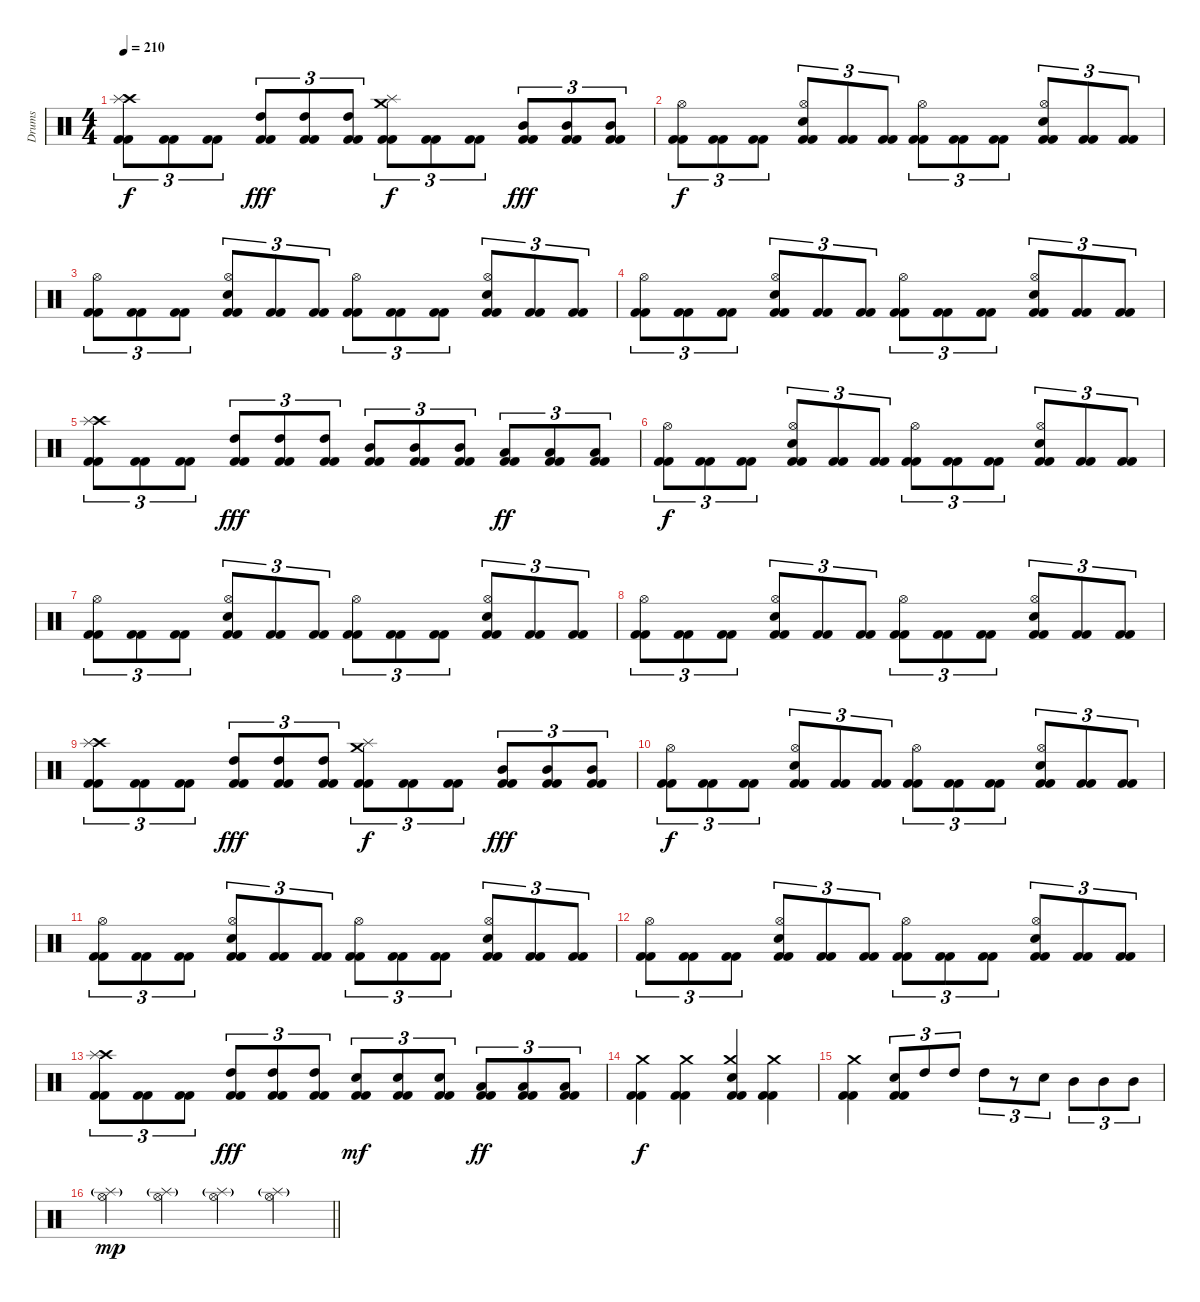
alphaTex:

\track ("Drums" "Drums") {instrument percussion}
\staff {score}
\articulation defaults
\ts (4 4)
\tempo 210
\clef neutral
\ks c
("Crash high (hit)" "Splash (hit)" "Kick (hit) 2" "Kick (hit) 2").8{tu (3 2) dy f} ("Kick (hit) 2" "Kick (hit) 2").8{tu (3 2)} ("Kick (hit) 2" "Kick (hit) 2").8{tu (3 2)} ("High Tom (hit)" "Kick (hit) 2" "Kick (hit) 2").8{tu (3 2) dy fff} ("High Tom (hit)" "Kick (hit) 2" "Kick (hit) 2").8{tu (3 2)} ("High Tom (hit)" "Kick (hit) 2" "Kick (hit) 2").8{tu (3 2)} ("Crash medium (hit)" "Splash (hit)" "Kick (hit) 2" "Kick (hit) 2").8{tu (3 2) dy f} ("Kick (hit) 2" "Kick (hit) 2").8{tu (3 2)} ("Kick (hit) 2" "Kick (hit) 2").8{tu (3 2)} ("Mid Tom (hit)" "Kick (hit) 2" "Kick (hit) 2").8{tu (3 2) dy fff} ("Mid Tom (hit)" "Kick (hit) 2" "Kick (hit) 2").8{tu (3 2)} ("Mid Tom (hit)" "Kick (hit) 2" "Kick (hit) 2").8{tu (3 2)} |
("Hi-Hat (open)" "Kick (hit) 2" "Kick (hit) 2").8{tu (3 2) dy f} ("Kick (hit) 2" "Kick (hit) 2").8{tu (3 2)} ("Kick (hit) 2" "Kick (hit) 2").8{tu (3 2)} ("Hi-Hat (open)" "Snare (hit) 2" "Kick (hit) 2" "Kick (hit) 2").8{tu (3 2)} ("Kick (hit) 2" "Kick (hit) 2").8{tu (3 2)} ("Kick (hit) 2" "Kick (hit) 2").8{tu (3 2)} ("Hi-Hat (open)" "Kick (hit) 2" "Kick (hit) 2").8{tu (3 2)} ("Kick (hit) 2" "Kick (hit) 2").8{tu (3 2)} ("Kick (hit) 2" "Kick (hit) 2").8{tu (3 2)} ("Hi-Hat (open)" "Snare (hit) 2" "Kick (hit) 2" "Kick (hit) 2").8{tu (3 2)} ("Kick (hit) 2" "Kick (hit) 2").8{tu (3 2)} ("Kick (hit) 2" "Kick (hit) 2").8{tu (3 2)} |
("Hi-Hat (open)" "Kick (hit) 2" "Kick (hit) 2").8{tu (3 2)} ("Kick (hit) 2" "Kick (hit) 2").8{tu (3 2)} ("Kick (hit) 2" "Kick (hit) 2").8{tu (3 2)} ("Hi-Hat (open)" "Snare (hit) 2" "Kick (hit) 2" "Kick (hit) 2").8{tu (3 2)} ("Kick (hit) 2" "Kick (hit) 2").8{tu (3 2)} ("Kick (hit) 2" "Kick (hit) 2").8{tu (3 2)} ("Hi-Hat (open)" "Kick (hit) 2" "Kick (hit) 2").8{tu (3 2)} ("Kick (hit) 2" "Kick (hit) 2").8{tu (3 2)} ("Kick (hit) 2" "Kick (hit) 2").8{tu (3 2)} ("Hi-Hat (open)" "Snare (hit) 2" "Kick (hit) 2" "Kick (hit) 2").8{tu (3 2)} ("Kick (hit) 2" "Kick (hit) 2").8{tu (3 2)} ("Kick (hit) 2" "Kick (hit) 2").8{tu (3 2)} |
("Hi-Hat (open)" "Kick (hit) 2" "Kick (hit) 2").8{tu (3 2)} ("Kick (hit) 2" "Kick (hit) 2").8{tu (3 2)} ("Kick (hit) 2" "Kick (hit) 2").8{tu (3 2)} ("Hi-Hat (open)" "Snare (hit) 2" "Kick (hit) 2" "Kick (hit) 2").8{tu (3 2)} ("Kick (hit) 2" "Kick (hit) 2").8{tu (3 2)} ("Kick (hit) 2" "Kick (hit) 2").8{tu (3 2)} ("Hi-Hat (open)" "Kick (hit) 2" "Kick (hit) 2").8{tu (3 2)} ("Kick (hit) 2" "Kick (hit) 2").8{tu (3 2)} ("Kick (hit) 2" "Kick (hit) 2").8{tu (3 2)} ("Hi-Hat (open)" "Snare (hit) 2" "Kick (hit) 2" "Kick (hit) 2").8{tu (3 2)} ("Kick (hit) 2" "Kick (hit) 2").8{tu (3 2)} ("Kick (hit) 2" "Kick (hit) 2").8{tu (3 2)} |
("Crash high (hit)" "Splash (hit)" "Kick (hit) 2" "Kick (hit) 2").8{tu (3 2)} ("Kick (hit) 2" "Kick (hit) 2").8{tu (3 2)} ("Kick (hit) 2" "Kick (hit) 2").8{tu (3 2)} ("High Tom (hit)" "Kick (hit) 2" "Kick (hit) 2").8{tu (3 2) dy fff} ("High Tom (hit)" "Kick (hit) 2" "Kick (hit) 2").8{tu (3 2)} ("High Tom (hit)" "Kick (hit) 2" "Kick (hit) 2").8{tu (3 2)} ("Mid Tom (hit)" "Kick (hit) 2" "Kick (hit) 2").8{tu (3 2)} ("Mid Tom (hit)" "Kick (hit) 2" "Kick (hit) 2").8{tu (3 2)} ("Mid Tom (hit)" "Kick (hit) 2" "Kick (hit) 2").8{tu (3 2)} ("Low Tom (hit)" "Kick (hit) 2" "Kick (hit) 2").8{tu (3 2) dy ff} ("Low Tom (hit)" "Kick (hit) 2" "Kick (hit) 2").8{tu (3 2)} ("Low Tom (hit)" "Kick (hit) 2" "Kick (hit) 2").8{tu (3 2)} |
("Hi-Hat (open)" "Kick (hit) 2" "Kick (hit) 2").8{tu (3 2) dy f} ("Kick (hit) 2" "Kick (hit) 2").8{tu (3 2)} ("Kick (hit) 2" "Kick (hit) 2").8{tu (3 2)} ("Hi-Hat (open)" "Snare (hit) 2" "Kick (hit) 2" "Kick (hit) 2").8{tu (3 2)} ("Kick (hit) 2" "Kick (hit) 2").8{tu (3 2)} ("Kick (hit) 2" "Kick (hit) 2").8{tu (3 2)} ("Hi-Hat (open)" "Kick (hit) 2" "Kick (hit) 2").8{tu (3 2)} ("Kick (hit) 2" "Kick (hit) 2").8{tu (3 2)} ("Kick (hit) 2" "Kick (hit) 2").8{tu (3 2)} ("Hi-Hat (open)" "Snare (hit) 2" "Kick (hit) 2" "Kick (hit) 2").8{tu (3 2)} ("Kick (hit) 2" "Kick (hit) 2").8{tu (3 2)} ("Kick (hit) 2" "Kick (hit) 2").8{tu (3 2)} |
("Hi-Hat (open)" "Kick (hit) 2" "Kick (hit) 2").8{tu (3 2)} ("Kick (hit) 2" "Kick (hit) 2").8{tu (3 2)} ("Kick (hit) 2" "Kick (hit) 2").8{tu (3 2)} ("Hi-Hat (open)" "Snare (hit) 2" "Kick (hit) 2" "Kick (hit) 2").8{tu (3 2)} ("Kick (hit) 2" "Kick (hit) 2").8{tu (3 2)} ("Kick (hit) 2" "Kick (hit) 2").8{tu (3 2)} ("Hi-Hat (open)" "Kick (hit) 2" "Kick (hit) 2").8{tu (3 2)} ("Kick (hit) 2" "Kick (hit) 2").8{tu (3 2)} ("Kick (hit) 2" "Kick (hit) 2").8{tu (3 2)} ("Hi-Hat (open)" "Snare (hit) 2" "Kick (hit) 2" "Kick (hit) 2").8{tu (3 2)} ("Kick (hit) 2" "Kick (hit) 2").8{tu (3 2)} ("Kick (hit) 2" "Kick (hit) 2").8{tu (3 2)} |
("Hi-Hat (open)" "Kick (hit) 2" "Kick (hit) 2").8{tu (3 2)} ("Kick (hit) 2" "Kick (hit) 2").8{tu (3 2)} ("Kick (hit) 2" "Kick (hit) 2").8{tu (3 2)} ("Hi-Hat (open)" "Snare (hit) 2" "Kick (hit) 2" "Kick (hit) 2").8{tu (3 2)} ("Kick (hit) 2" "Kick (hit) 2").8{tu (3 2)} ("Kick (hit) 2" "Kick (hit) 2").8{tu (3 2)} ("Hi-Hat (open)" "Kick (hit) 2" "Kick (hit) 2").8{tu (3 2)} ("Kick (hit) 2" "Kick (hit) 2").8{tu (3 2)} ("Kick (hit) 2" "Kick (hit) 2").8{tu (3 2)} ("Hi-Hat (open)" "Snare (hit) 2" "Kick (hit) 2" "Kick (hit) 2").8{tu (3 2)} ("Kick (hit) 2" "Kick (hit) 2").8{tu (3 2)} ("Kick (hit) 2" "Kick (hit) 2").8{tu (3 2)} |
("Crash high (hit)" "Splash (hit)" "Kick (hit) 2" "Kick (hit) 2").8{tu (3 2)} ("Kick (hit) 2" "Kick (hit) 2").8{tu (3 2)} ("Kick (hit) 2" "Kick (hit) 2").8{tu (3 2)} ("High Tom (hit)" "Kick (hit) 2" "Kick (hit) 2").8{tu (3 2) dy fff} ("High Tom (hit)" "Kick (hit) 2" "Kick (hit) 2").8{tu (3 2)} ("High Tom (hit)" "Kick (hit) 2" "Kick (hit) 2").8{tu (3 2)} ("Crash medium (hit)" "Splash (hit)" "Kick (hit) 2" "Kick (hit) 2").8{tu (3 2) dy f} ("Kick (hit) 2" "Kick (hit) 2").8{tu (3 2)} ("Kick (hit) 2" "Kick (hit) 2").8{tu (3 2)} ("Mid Tom (hit)" "Kick (hit) 2" "Kick (hit) 2").8{tu (3 2) dy fff} ("Mid Tom (hit)" "Kick (hit) 2" "Kick (hit) 2").8{tu (3 2)} ("Mid Tom (hit)" "Kick (hit) 2" "Kick (hit) 2").8{tu (3 2)} |
("Hi-Hat (open)" "Kick (hit) 2" "Kick (hit) 2").8{tu (3 2) dy f} ("Kick (hit) 2" "Kick (hit) 2").8{tu (3 2)} ("Kick (hit) 2" "Kick (hit) 2").8{tu (3 2)} ("Hi-Hat (open)" "Snare (hit) 2" "Kick (hit) 2" "Kick (hit) 2").8{tu (3 2)} ("Kick (hit) 2" "Kick (hit) 2").8{tu (3 2)} ("Kick (hit) 2" "Kick (hit) 2").8{tu (3 2)} ("Hi-Hat (open)" "Kick (hit) 2" "Kick (hit) 2").8{tu (3 2)} ("Kick (hit) 2" "Kick (hit) 2").8{tu (3 2)} ("Kick (hit) 2" "Kick (hit) 2").8{tu (3 2)} ("Hi-Hat (open)" "Snare (hit) 2" "Kick (hit) 2" "Kick (hit) 2").8{tu (3 2)} ("Kick (hit) 2" "Kick (hit) 2").8{tu (3 2)} ("Kick (hit) 2" "Kick (hit) 2").8{tu (3 2)} |
("Hi-Hat (open)" "Kick (hit) 2" "Kick (hit) 2").8{tu (3 2)} ("Kick (hit) 2" "Kick (hit) 2").8{tu (3 2)} ("Kick (hit) 2" "Kick (hit) 2").8{tu (3 2)} ("Hi-Hat (open)" "Snare (hit) 2" "Kick (hit) 2" "Kick (hit) 2").8{tu (3 2)} ("Kick (hit) 2" "Kick (hit) 2").8{tu (3 2)} ("Kick (hit) 2" "Kick (hit) 2").8{tu (3 2)} ("Hi-Hat (open)" "Kick (hit) 2" "Kick (hit) 2").8{tu (3 2)} ("Kick (hit) 2" "Kick (hit) 2").8{tu (3 2)} ("Kick (hit) 2" "Kick (hit) 2").8{tu (3 2)} ("Hi-Hat (open)" "Snare (hit) 2" "Kick (hit) 2" "Kick (hit) 2").8{tu (3 2)} ("Kick (hit) 2" "Kick (hit) 2").8{tu (3 2)} ("Kick (hit) 2" "Kick (hit) 2").8{tu (3 2)} |
("Hi-Hat (open)" "Kick (hit) 2" "Kick (hit) 2").8{tu (3 2)} ("Kick (hit) 2" "Kick (hit) 2").8{tu (3 2)} ("Kick (hit) 2" "Kick (hit) 2").8{tu (3 2)} ("Hi-Hat (open)" "Snare (hit) 2" "Kick (hit) 2" "Kick (hit) 2").8{tu (3 2)} ("Kick (hit) 2" "Kick (hit) 2").8{tu (3 2)} ("Kick (hit) 2" "Kick (hit) 2").8{tu (3 2)} ("Hi-Hat (open)" "Kick (hit) 2" "Kick (hit) 2").8{tu (3 2)} ("Kick (hit) 2" "Kick (hit) 2").8{tu (3 2)} ("Kick (hit) 2" "Kick (hit) 2").8{tu (3 2)} ("Hi-Hat (open)" "Snare (hit) 2" "Kick (hit) 2" "Kick (hit) 2").8{tu (3 2)} ("Kick (hit) 2" "Kick (hit) 2").8{tu (3 2)} ("Kick (hit) 2" "Kick (hit) 2").8{tu (3 2)} |
("Crash high (hit)" "Splash (hit)" "Kick (hit) 2" "Kick (hit) 2").8{tu (3 2)} ("Kick (hit) 2" "Kick (hit) 2").8{tu (3 2)} ("Kick (hit) 2" "Kick (hit) 2").8{tu (3 2)} ("High Tom (hit)" "Kick (hit) 2" "Kick (hit) 2").8{tu (3 2) dy fff} ("High Tom (hit)" "Kick (hit) 2" "Kick (hit) 2").8{tu (3 2)} ("High Tom (hit)" "Kick (hit) 2" "Kick (hit) 2").8{tu (3 2)} ("Snare (hit) 2" "Kick (hit) 2" "Kick (hit) 2").8{tu (3 2) dy mf} ("Snare (hit) 2" "Kick (hit) 2" "Kick (hit) 2").8{tu (3 2)} ("Snare (hit) 2" "Kick (hit) 2" "Kick (hit) 2").8{tu (3 2)} ("Low Tom (hit)" "Kick (hit) 2" "Kick (hit) 2").8{tu (3 2) dy ff} ("Low Tom (hit)" "Kick (hit) 2" "Kick (hit) 2").8{tu (3 2)} ("Low Tom (hit)" "Kick (hit) 2" "Kick (hit) 2").8{tu (3 2)} |
("Crash medium (hit)" "Kick (hit) 2" "Kick (hit) 2").4{dy f} ("Crash medium (hit)" "Kick (hit) 2" "Kick (hit) 2").4 ("Crash medium (hit)" "Snare (hit) 2" "Kick (hit) 2" "Kick (hit) 2").4 ("Crash medium (hit)" "Kick (hit) 2" "Kick (hit) 2").4 |
("Crash medium (hit)" "Kick (hit) 2" "Kick (hit) 2").4 ("Snare (hit) 2" "Kick (hit) 2" "Kick (hit) 2").8{tu (3 2)} "High Tom (hit)".8{tu (3 2)} "High Tom (hit)".8{tu (3 2)} "High Tom (hit)".8{tu (3 2)} r.8{tu (3 2)} "Snare (hit) 2".8{tu (3 2)} "Mid Tom (hit)".8{tu (3 2)} "Mid Tom (hit)".8{tu (3 2)} "Mid Tom (hit)".8{tu (3 2)} |
\barLineRight lightlight
("Hi-Hat (open)" "Splash (hit)"{g}).4{dy mp} ("Hi-Hat (open)" "Splash (hit)"{g}).4 ("Hi-Hat (open)" "Splash (hit)"{g}).4 ("Hi-Hat (open)" "Splash (hit)"{g}).4
